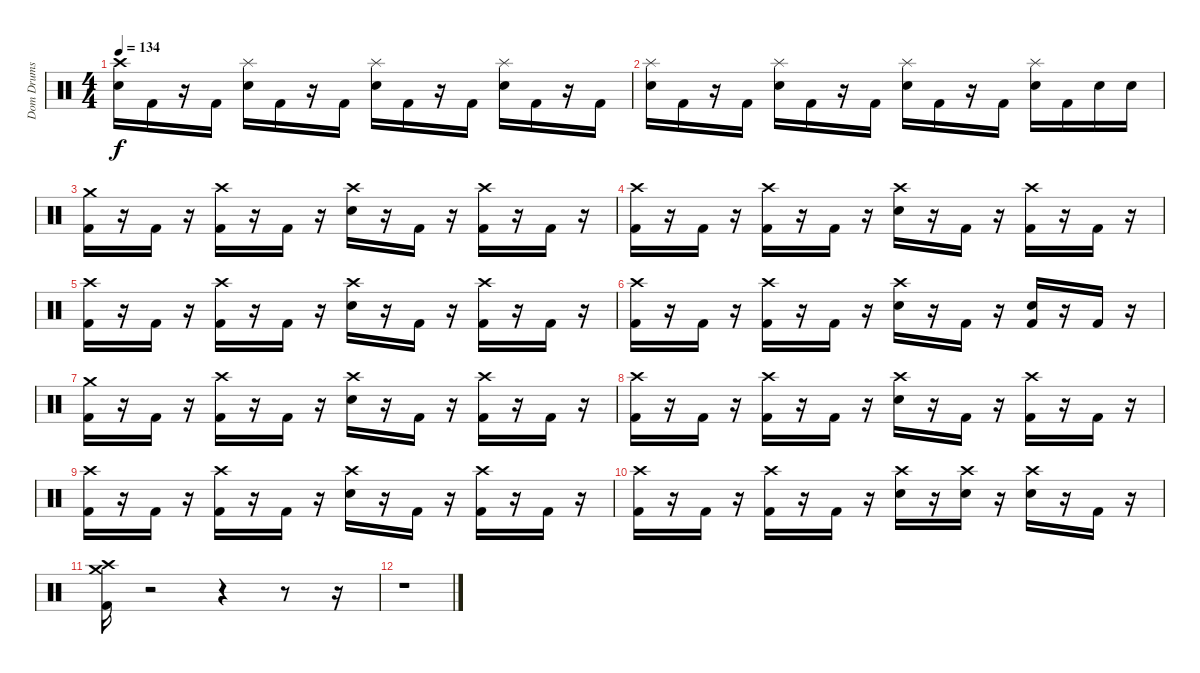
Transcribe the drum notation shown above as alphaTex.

\track ("Dom Drums" "Dom Drums") {instrument percussion}
\staff {score}
\articulation defaults
\ts (4 4)
\tempo 134
\clef neutral
\ks c
("Crash high (hit)" "Electric Snare (hit)").16{dy f} "Kick (hit) 2".16 r.16 "Kick (hit) 2".16 ("Splash (hit)" "Electric Snare (hit)").16 "Kick (hit) 2".16 r.16 "Kick (hit) 2".16 ("Splash (hit)" "Electric Snare (hit)").16 "Kick (hit) 2".16 r.16 "Kick (hit) 2".16 ("Splash (hit)" "Electric Snare (hit)").16 "Kick (hit) 2".16 r.16 "Kick (hit) 2".16 |
("Splash (hit)" "Electric Snare (hit)").16 "Kick (hit) 2".16 r.16 "Kick (hit) 2".16 ("Splash (hit)" "Electric Snare (hit)").16 "Kick (hit) 2".16 r.16 "Kick (hit) 2".16 ("Splash (hit)" "Electric Snare (hit)").16 "Kick (hit) 2".16 r.16 "Kick (hit) 2".16 ("Splash (hit)" "Electric Snare (hit)").16 "Kick (hit) 2".16 "Electric Snare (hit)".16 "Electric Snare (hit)".16 |
("Crash medium (hit)" "Kick (hit) 2").16 r.16 "Kick (hit) 2".16 r.16 ("Crash high (hit)" "Kick (hit) 2").16 r.16 "Kick (hit) 2".16 r.16 ("Crash high (hit)" "Electric Snare (hit)").16 r.16 "Kick (hit) 2".16 r.16 ("Crash high (hit)" "Kick (hit) 2").16 r.16 "Kick (hit) 2".16 r.16 |
("Crash high (hit)" "Kick (hit) 2").16 r.16 "Kick (hit) 2".16 r.16 ("Crash high (hit)" "Kick (hit) 2").16 r.16 "Kick (hit) 2".16 r.16 ("Crash high (hit)" "Electric Snare (hit)").16 r.16 "Kick (hit) 2".16 r.16 ("Crash high (hit)" "Kick (hit) 2").16 r.16 "Kick (hit) 2".16 r.16 |
("Crash high (hit)" "Kick (hit) 2").16 r.16 "Kick (hit) 2".16 r.16 ("Crash high (hit)" "Kick (hit) 2").16 r.16 "Kick (hit) 2".16 r.16 ("Crash high (hit)" "Electric Snare (hit)").16 r.16 "Kick (hit) 2".16 r.16 ("Crash high (hit)" "Kick (hit) 2").16 r.16 "Kick (hit) 2".16 r.16 |
("Crash high (hit)" "Kick (hit) 2").16 r.16 "Kick (hit) 2".16 r.16 ("Crash high (hit)" "Kick (hit) 2").16 r.16 "Kick (hit) 2".16 r.16 ("Crash high (hit)" "Electric Snare (hit)").16 r.16 "Kick (hit) 2".16 r.16 ("Electric Snare (hit)" "Kick (hit) 2").16 r.16 "Kick (hit) 2".16 r.16 |
("Crash medium (hit)" "Kick (hit) 2").16 r.16 "Kick (hit) 2".16 r.16 ("Crash high (hit)" "Kick (hit) 2").16 r.16 "Kick (hit) 2".16 r.16 ("Crash high (hit)" "Electric Snare (hit)").16 r.16 "Kick (hit) 2".16 r.16 ("Crash high (hit)" "Kick (hit) 2").16 r.16 "Kick (hit) 2".16 r.16 |
("Crash high (hit)" "Kick (hit) 2").16 r.16 "Kick (hit) 2".16 r.16 ("Crash high (hit)" "Kick (hit) 2").16 r.16 "Kick (hit) 2".16 r.16 ("Crash high (hit)" "Electric Snare (hit)").16 r.16 "Kick (hit) 2".16 r.16 ("Crash high (hit)" "Kick (hit) 2").16 r.16 "Kick (hit) 2".16 r.16 |
("Crash high (hit)" "Kick (hit) 2").16 r.16 "Kick (hit) 2".16 r.16 ("Crash high (hit)" "Kick (hit) 2").16 r.16 "Kick (hit) 2".16 r.16 ("Crash high (hit)" "Electric Snare (hit)").16 r.16 "Kick (hit) 2".16 r.16 ("Crash high (hit)" "Kick (hit) 2").16 r.16 "Kick (hit) 2".16 r.16 |
("Crash high (hit)" "Kick (hit) 2").16 r.16 "Kick (hit) 2".16 r.16 ("Crash high (hit)" "Kick (hit) 2").16 r.16 "Kick (hit) 2".16 r.16 ("Crash high (hit)" "Electric Snare (hit)").16 r.16 ("Crash high (hit)" "Electric Snare (hit)").16 r.16 ("Crash high (hit)" "Electric Snare (hit)").16 r.16 "Kick (hit) 2".16 r.16 |
("Crash medium (hit)" "Crash high (hit)" "Kick (hit) 2").16 r.2 r.4 r.8 r.16 |
r.1
